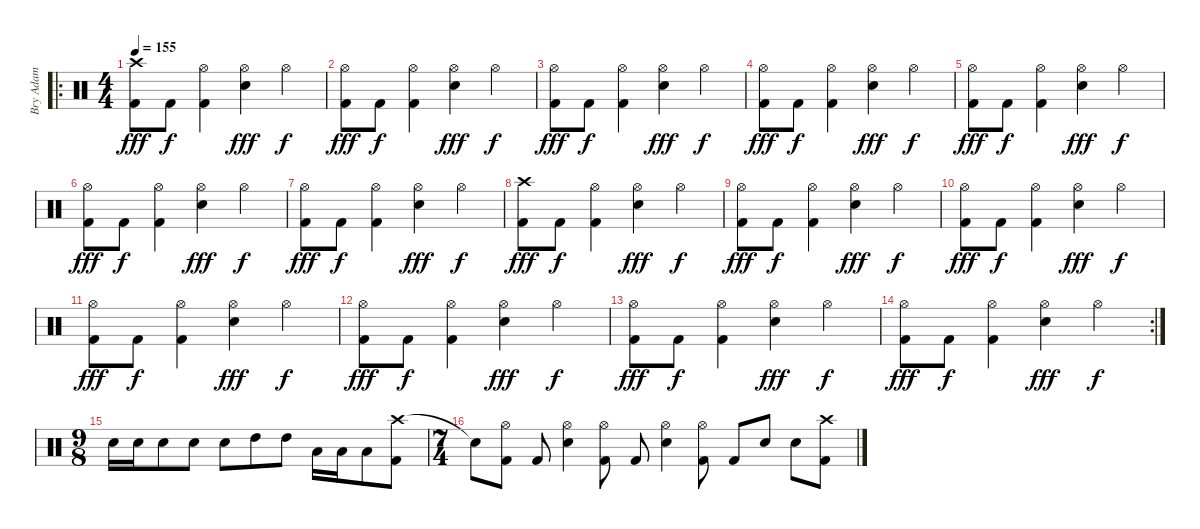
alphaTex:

\track ("Bry Adam " "Bry Adam ") {instrument percussion}
\staff {score}
\articulation defaults
\ro
\ts (4 4)
\tempo 155
\clef neutral
\ks c
("Crash high (hit)" "Kick (hit) 2").8{dy fff} "Kick (hit) 2".8{dy f} ("Hi-Hat (open)" "Kick (hit) 2").4 ("Hi-Hat (open)" "Snare (hit) 2").4{dy fff} "Hi-Hat (open)".4{dy f} |
("Hi-Hat (open)" "Kick (hit) 2").8{dy fff} "Kick (hit) 2".8{dy f} ("Hi-Hat (open)" "Kick (hit) 2").4 ("Hi-Hat (open)" "Snare (hit) 2").4{dy fff} "Hi-Hat (open)".4{dy f} |
("Hi-Hat (open)" "Kick (hit) 2").8{dy fff} "Kick (hit) 2".8{dy f} ("Hi-Hat (open)" "Kick (hit) 2").4 ("Hi-Hat (open)" "Snare (hit) 2").4{dy fff} "Hi-Hat (open)".4{dy f} |
("Hi-Hat (open)" "Kick (hit) 2").8{dy fff} "Kick (hit) 2".8{dy f} ("Hi-Hat (open)" "Kick (hit) 2").4 ("Hi-Hat (open)" "Snare (hit) 2").4{dy fff} "Hi-Hat (open)".4{dy f} |
("Hi-Hat (open)" "Kick (hit) 2").8{dy fff} "Kick (hit) 2".8{dy f} ("Hi-Hat (open)" "Kick (hit) 2").4 ("Hi-Hat (open)" "Snare (hit) 2").4{dy fff} "Hi-Hat (open)".4{dy f} |
("Hi-Hat (open)" "Kick (hit) 2").8{dy fff} "Kick (hit) 2".8{dy f} ("Hi-Hat (open)" "Kick (hit) 2").4 ("Hi-Hat (open)" "Snare (hit) 2").4{dy fff} "Hi-Hat (open)".4{dy f} |
("Hi-Hat (open)" "Kick (hit) 2").8{dy fff} "Kick (hit) 2".8{dy f} ("Hi-Hat (open)" "Kick (hit) 2").4 ("Hi-Hat (open)" "Snare (hit) 2").4{dy fff} "Hi-Hat (open)".4{dy f} |
("Crash high (hit)" "Kick (hit) 2").8{dy fff} "Kick (hit) 2".8{dy f} ("Hi-Hat (open)" "Kick (hit) 2").4 ("Hi-Hat (open)" "Snare (hit) 2").4{dy fff} "Hi-Hat (open)".4{dy f} |
("Hi-Hat (open)" "Kick (hit) 2").8{dy fff} "Kick (hit) 2".8{dy f} ("Hi-Hat (open)" "Kick (hit) 2").4 ("Hi-Hat (open)" "Snare (hit) 2").4{dy fff} "Hi-Hat (open)".4{dy f} |
("Hi-Hat (open)" "Kick (hit) 2").8{dy fff} "Kick (hit) 2".8{dy f} ("Hi-Hat (open)" "Kick (hit) 2").4 ("Hi-Hat (open)" "Snare (hit) 2").4{dy fff} "Hi-Hat (open)".4{dy f} |
("Hi-Hat (open)" "Kick (hit) 2").8{dy fff} "Kick (hit) 2".8{dy f} ("Hi-Hat (open)" "Kick (hit) 2").4 ("Hi-Hat (open)" "Snare (hit) 2").4{dy fff} "Hi-Hat (open)".4{dy f} |
("Hi-Hat (open)" "Kick (hit) 2").8{dy fff} "Kick (hit) 2".8{dy f} ("Hi-Hat (open)" "Kick (hit) 2").4 ("Hi-Hat (open)" "Snare (hit) 2").4{dy fff} "Hi-Hat (open)".4{dy f} |
("Hi-Hat (open)" "Kick (hit) 2").8{dy fff} "Kick (hit) 2".8{dy f} ("Hi-Hat (open)" "Kick (hit) 2").4 ("Hi-Hat (open)" "Snare (hit) 2").4{dy fff} "Hi-Hat (open)".4{dy f} |
\rc 2
("Hi-Hat (open)" "Kick (hit) 2").8{dy fff} "Kick (hit) 2".8{dy f} ("Hi-Hat (open)" "Kick (hit) 2").4 ("Hi-Hat (open)" "Snare (hit) 2").4{dy fff} "Hi-Hat (open)".4{dy f} |
\ts (9 8)
"Snare (hit) 2".16 "Snare (hit) 2".16 "Snare (hit) 2".8 "Snare (hit) 2".8 "Snare (hit) 2".8 "High Tom (hit)".8 "High Tom (hit)".8 "Low Tom (hit)".16 "Low Tom (hit)".16 "Low Tom (hit)".8 ("Crash high (hit)" "Kick (hit) 2").8 |
\ts (7 4)
"Snare (hit)"{t}.8 ("Hi-Hat (open)" "Kick (hit) 2").8 "Kick (hit) 2".8 ("Hi-Hat (open)" "Snare (hit) 2").4 ("Hi-Hat (open)" "Kick (hit) 2").8 "Kick (hit) 2".8 ("Hi-Hat (open)" "Snare (hit) 2").4 ("Hi-Hat (open)" "Kick (hit) 2").8 "Kick (hit) 2".8 "Snare (hit) 2".8 "Snare (hit) 2".8 ("Crash high (hit)" "Kick (hit) 2").8
